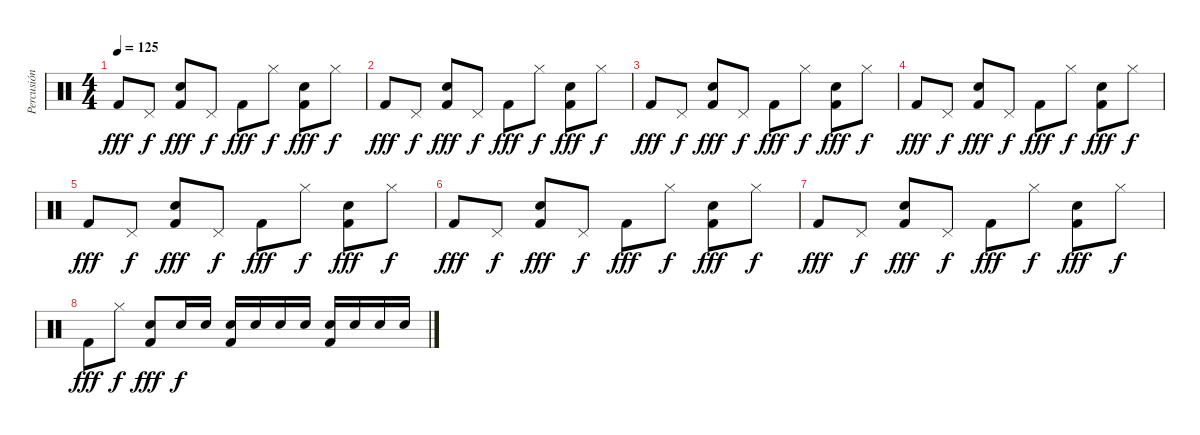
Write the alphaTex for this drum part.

\track ("Percusión" "Percusión") {instrument percussion}
\staff {score}
\articulation defaults
\ts (4 4)
\tempo 125
\clef neutral
\ks c "Kick (hit) 2".8{dy fff} "Pedal Hi-Hat (hit)".8{dy f}
("Electric Snare (hit)" "Kick (hit) 2").8{dy fff} "Pedal Hi-Hat (hit)".8{dy f} "Kick (hit) 2".8{dy fff} "Hi-Hat (closed)".8{dy f} ("Electric Snare (hit)" "Kick (hit) 2").8{dy fff} "Hi-Hat (closed)".8{dy f} |
"Kick (hit) 2".8{dy fff} "Pedal Hi-Hat (hit)".8{dy f} ("Electric Snare (hit)" "Kick (hit) 2").8{dy fff} "Pedal Hi-Hat (hit)".8{dy f} "Kick (hit) 2".8{dy fff} "Hi-Hat (closed)".8{dy f} ("Electric Snare (hit)" "Kick (hit) 2").8{dy fff} "Hi-Hat (closed)".8{dy f} |
"Kick (hit) 2".8{dy fff} "Pedal Hi-Hat (hit)".8{dy f} ("Electric Snare (hit)" "Kick (hit) 2").8{dy fff} "Pedal Hi-Hat (hit)".8{dy f} "Kick (hit) 2".8{dy fff} "Hi-Hat (closed)".8{dy f} ("Electric Snare (hit)" "Kick (hit) 2").8{dy fff} "Hi-Hat (closed)".8{dy f} |
"Kick (hit) 2".8{dy fff} "Pedal Hi-Hat (hit)".8{dy f} ("Electric Snare (hit)" "Kick (hit) 2").8{dy fff} "Pedal Hi-Hat (hit)".8{dy f} "Kick (hit) 2".8{dy fff} "Hi-Hat (closed)".8{dy f} ("Electric Snare (hit)" "Kick (hit) 2").8{dy fff} "Hi-Hat (closed)".8{dy f} |
"Kick (hit) 2".8{dy fff volume 0} "Pedal Hi-Hat (hit)".8{dy f} ("Electric Snare (hit)" "Kick (hit) 2").8{dy fff} "Pedal Hi-Hat (hit)".8{dy f} "Kick (hit) 2".8{dy fff} "Hi-Hat (closed)".8{dy f} ("Electric Snare (hit)" "Kick (hit) 2").8{dy fff} "Hi-Hat (closed)".8{dy f} |
"Kick (hit) 2".8{dy fff} "Pedal Hi-Hat (hit)".8{dy f} ("Electric Snare (hit)" "Kick (hit) 2").8{dy fff} "Pedal Hi-Hat (hit)".8{dy f} "Kick (hit) 2".8{dy fff} "Hi-Hat (closed)".8{dy f} ("Electric Snare (hit)" "Kick (hit) 2").8{dy fff} "Hi-Hat (closed)".8{dy f} |
"Kick (hit) 2".8{dy fff} "Pedal Hi-Hat (hit)".8{dy f} ("Electric Snare (hit)" "Kick (hit) 2").8{dy fff} "Pedal Hi-Hat (hit)".8{dy f} "Kick (hit) 2".8{dy fff} "Hi-Hat (closed)".8{dy f} ("Electric Snare (hit)" "Kick (hit) 2").8{dy fff} "Hi-Hat (closed)".8{dy f} |
"Kick (hit) 2".8{dy fff} "Hi-Hat (closed)".8{dy f} ("Electric Snare (hit)" "Kick (hit) 2").8{dy fff} "Electric Snare (hit)".16{dy f} "Electric Snare (hit)".16 ("Electric Snare (hit)" "Kick (hit) 2").16 "Electric Snare (hit)".16 "Electric Snare (hit)".16 "Electric Snare (hit)".16 ("Electric Snare (hit)" "Kick (hit) 2").16 "Electric Snare (hit)".16 "Electric Snare (hit)".16 "Electric Snare (hit)".16
